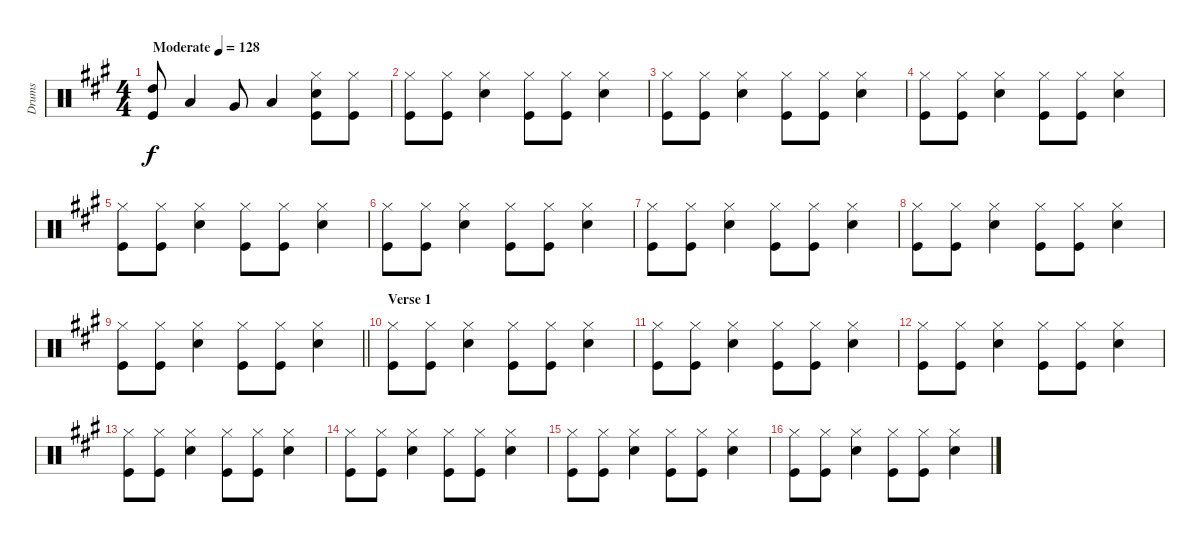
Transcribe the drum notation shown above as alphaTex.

\track ("Drums" "Drums") {instrument percussion}
\staff
\articulation defaults
\ts (4 4)
\tempo (128 "Moderate")
\clef neutral
\ks a
("High Tom (hit)" "Kick (hit)").8{dy f} "Low Tom (hit)".4 "Very Low Tom (hit)".8 "Low Floor Tom (hit)".4 ("Hi-Hat (closed)" "Snare (hit) 2" "Kick (hit)").8 ("Hi-Hat (closed)" "Kick (hit)").8 |
("Hi-Hat (closed)" "Kick (hit)").8 ("Hi-Hat (closed)" "Kick (hit)").8 ("Hi-Hat (closed)" "Snare (hit) 2").4 ("Hi-Hat (closed)" "Kick (hit)").8 ("Hi-Hat (closed)" "Kick (hit)").8 ("Hi-Hat (closed)" "Snare (hit) 2").4 |
("Hi-Hat (closed)" "Kick (hit)").8 ("Hi-Hat (closed)" "Kick (hit)").8 ("Hi-Hat (closed)" "Snare (hit) 2").4 ("Hi-Hat (closed)" "Kick (hit)").8 ("Hi-Hat (closed)" "Kick (hit)").8 ("Hi-Hat (closed)" "Snare (hit) 2").4 |
("Hi-Hat (closed)" "Kick (hit)").8 ("Hi-Hat (closed)" "Kick (hit)").8 ("Hi-Hat (closed)" "Snare (hit) 2").4 ("Hi-Hat (closed)" "Kick (hit)").8 ("Hi-Hat (closed)" "Kick (hit)").8 ("Hi-Hat (closed)" "Snare (hit) 2").4 |
("Hi-Hat (closed)" "Kick (hit)").8 ("Hi-Hat (closed)" "Kick (hit)").8 ("Hi-Hat (closed)" "Snare (hit) 2").4 ("Hi-Hat (closed)" "Kick (hit)").8 ("Hi-Hat (closed)" "Kick (hit)").8 ("Hi-Hat (closed)" "Snare (hit) 2").4 |
("Hi-Hat (closed)" "Kick (hit)").8 ("Hi-Hat (closed)" "Kick (hit)").8 ("Hi-Hat (closed)" "Snare (hit) 2").4 ("Hi-Hat (closed)" "Kick (hit)").8 ("Hi-Hat (closed)" "Kick (hit)").8 ("Hi-Hat (closed)" "Snare (hit) 2").4 |
("Hi-Hat (closed)" "Kick (hit)").8 ("Hi-Hat (closed)" "Kick (hit)").8 ("Hi-Hat (closed)" "Snare (hit) 2").4 ("Hi-Hat (closed)" "Kick (hit)").8 ("Hi-Hat (closed)" "Kick (hit)").8 ("Hi-Hat (closed)" "Snare (hit) 2").4 |
("Hi-Hat (closed)" "Kick (hit)").8 ("Hi-Hat (closed)" "Kick (hit)").8 ("Hi-Hat (closed)" "Snare (hit) 2").4 ("Hi-Hat (closed)" "Kick (hit)").8 ("Hi-Hat (closed)" "Kick (hit)").8 ("Hi-Hat (closed)" "Snare (hit) 2").4 |
\barLineRight lightlight
("Hi-Hat (closed)" "Kick (hit)").8 ("Hi-Hat (closed)" "Kick (hit)").8 ("Hi-Hat (closed)" "Snare (hit) 2").4 ("Hi-Hat (closed)" "Kick (hit)").8 ("Hi-Hat (closed)" "Kick (hit)").8 ("Hi-Hat (closed)" "Snare (hit) 2").4 |
\section ("" "Verse 1")
("Hi-Hat (closed)" "Kick (hit)").8 ("Hi-Hat (closed)" "Kick (hit)").8 ("Hi-Hat (closed)" "Snare (hit) 2").4 ("Hi-Hat (closed)" "Kick (hit)").8 ("Hi-Hat (closed)" "Kick (hit)").8 ("Hi-Hat (closed)" "Snare (hit) 2").4 |
("Hi-Hat (closed)" "Kick (hit)").8 ("Hi-Hat (closed)" "Kick (hit)").8 ("Hi-Hat (closed)" "Snare (hit) 2").4 ("Hi-Hat (closed)" "Kick (hit)").8 ("Hi-Hat (closed)" "Kick (hit)").8 ("Hi-Hat (closed)" "Snare (hit) 2").4 |
("Hi-Hat (closed)" "Kick (hit)").8 ("Hi-Hat (closed)" "Kick (hit)").8 ("Hi-Hat (closed)" "Snare (hit) 2").4 ("Hi-Hat (closed)" "Kick (hit)").8 ("Hi-Hat (closed)" "Kick (hit)").8 ("Hi-Hat (closed)" "Snare (hit) 2").4 |
("Hi-Hat (closed)" "Kick (hit)").8 ("Hi-Hat (closed)" "Kick (hit)").8 ("Hi-Hat (closed)" "Snare (hit) 2").4 ("Hi-Hat (closed)" "Kick (hit)").8 ("Hi-Hat (closed)" "Kick (hit)").8 ("Hi-Hat (closed)" "Snare (hit) 2").4 |
("Hi-Hat (closed)" "Kick (hit)").8 ("Hi-Hat (closed)" "Kick (hit)").8 ("Hi-Hat (closed)" "Snare (hit) 2").4 ("Hi-Hat (closed)" "Kick (hit)").8 ("Hi-Hat (closed)" "Kick (hit)").8 ("Hi-Hat (closed)" "Snare (hit) 2").4 |
("Hi-Hat (closed)" "Kick (hit)").8 ("Hi-Hat (closed)" "Kick (hit)").8 ("Hi-Hat (closed)" "Snare (hit) 2").4 ("Hi-Hat (closed)" "Kick (hit)").8 ("Hi-Hat (closed)" "Kick (hit)").8 ("Hi-Hat (closed)" "Snare (hit) 2").4 |
("Hi-Hat (closed)" "Kick (hit)").8 ("Hi-Hat (closed)" "Kick (hit)").8 ("Hi-Hat (closed)" "Snare (hit) 2").4 ("Hi-Hat (closed)" "Kick (hit)").8 ("Hi-Hat (closed)" "Kick (hit)").8 ("Hi-Hat (closed)" "Snare (hit) 2").4
